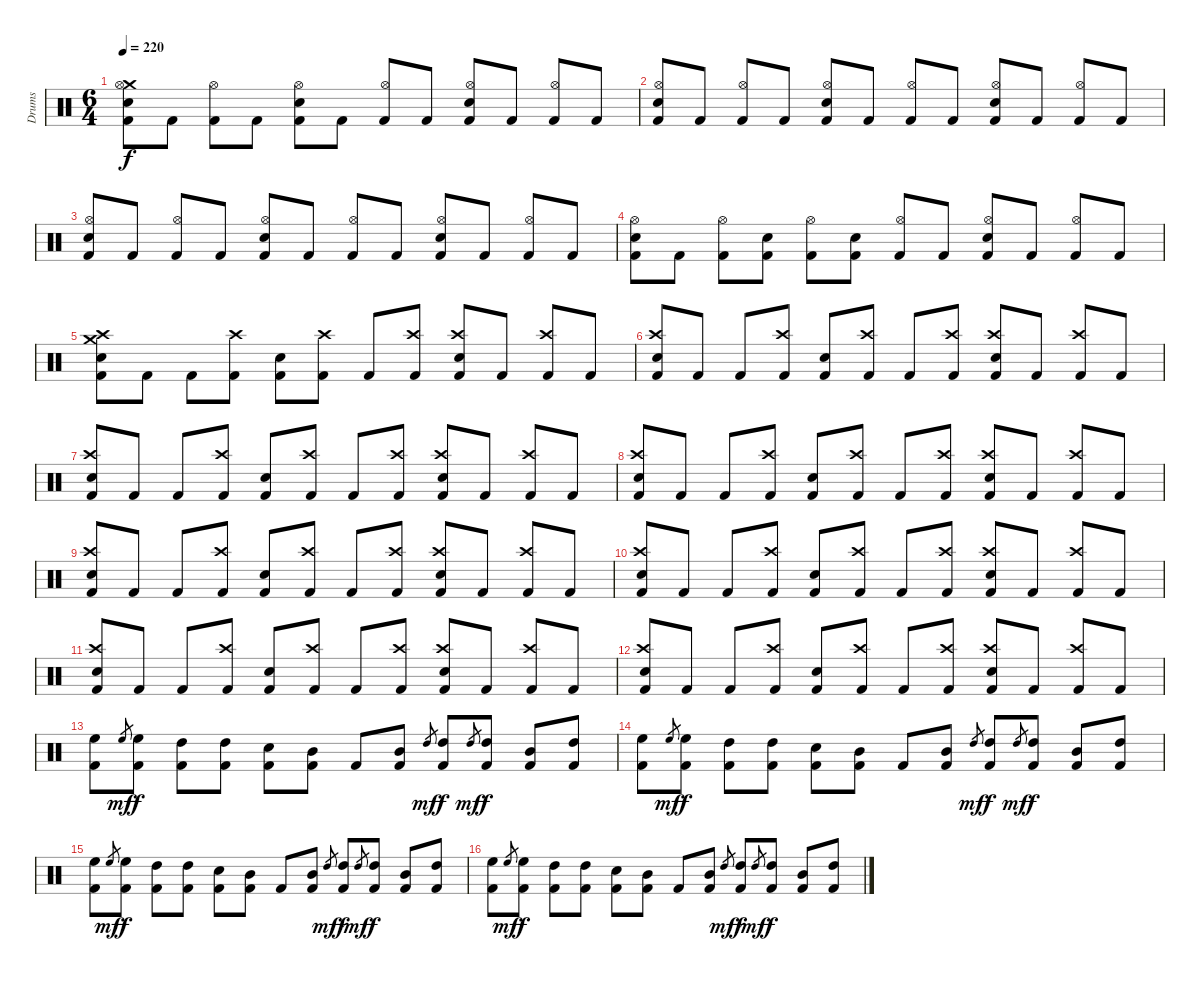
\bracketExtendMode groupsimilarinstruments
\otherSystemsTrackNameOrientation horizontal
\track ("Drumkit" "Drums") {instrument percussion}
\staff {score}
\articulation defaults
\ts (6 4)
\tempo 220
\clef neutral
\ks c
("Crash medium (hit)" "Hi-Hat (open)" "Snare (hit) 2" "Kick (hit) 2").8{dy f beam Down} "Kick (hit) 2".8{beam Down} ("Hi-Hat (open)" "Kick (hit) 2").8{beam Down} "Kick (hit) 2".8{beam Down} ("Hi-Hat (open)" "Snare (hit) 2" "Kick (hit) 2").8{beam Down} "Kick (hit) 2".8{beam Down} ("Hi-Hat (open)" "Kick (hit) 2").8{beam Up} "Kick (hit) 2".8{beam Up} ("Hi-Hat (open)" "Snare (hit) 2" "Kick (hit) 2").8{beam Up} "Kick (hit) 2".8{beam Up} ("Hi-Hat (open)" "Kick (hit) 2").8{beam Up} "Kick (hit) 2".8{beam Up} |
("Hi-Hat (open)" "Snare (hit) 2" "Kick (hit) 2").8{beam Up} "Kick (hit) 2".8{beam Up} ("Hi-Hat (open)" "Kick (hit) 2").8{beam Up} "Kick (hit) 2".8{beam Up} ("Hi-Hat (open)" "Snare (hit) 2" "Kick (hit) 2").8{beam Up} "Kick (hit) 2".8{beam Up} ("Hi-Hat (open)" "Kick (hit) 2").8{beam Up} "Kick (hit) 2".8{beam Up} ("Hi-Hat (open)" "Snare (hit) 2" "Kick (hit) 2").8{beam Up} "Kick (hit) 2".8{beam Up} ("Hi-Hat (open)" "Kick (hit) 2").8{beam Up} "Kick (hit) 2".8{beam Up} |
("Hi-Hat (open)" "Snare (hit) 2" "Kick (hit) 2").8{beam Up} "Kick (hit) 2".8{beam Up} ("Hi-Hat (open)" "Kick (hit) 2").8{beam Up} "Kick (hit) 2".8{beam Up} ("Hi-Hat (open)" "Snare (hit) 2" "Kick (hit) 2").8{beam Up} "Kick (hit) 2".8{beam Up} ("Hi-Hat (open)" "Kick (hit) 2").8{beam Up} "Kick (hit) 2".8{beam Up} ("Hi-Hat (open)" "Snare (hit) 2" "Kick (hit) 2").8{beam Up} "Kick (hit) 2".8{beam Up} ("Hi-Hat (open)" "Kick (hit) 2").8{beam Up} "Kick (hit) 2".8{beam Up} |
("Hi-Hat (open)" "Snare (hit) 2" "Kick (hit) 2").8{beam Down} "Kick (hit) 2".8{beam Down} ("Hi-Hat (open)" "Kick (hit) 2").8{beam Down} ("Snare (hit) 2" "Kick (hit) 2").8{beam Down} ("Hi-Hat (open)" "Kick (hit) 2").8{beam Down} ("Snare (hit) 2" "Kick (hit) 2").8{beam Down} ("Hi-Hat (open)" "Kick (hit) 2").8{beam Up} "Kick (hit) 2".8{beam Up} ("Hi-Hat (open)" "Snare (hit) 2" "Kick (hit) 2").8{beam Up} "Kick (hit) 2".8{beam Up} ("Hi-Hat (open)" "Kick (hit) 2").8{beam Up} "Kick (hit) 2".8{beam Up} |
("Crash medium (hit)" "Crash high (hit)" "Snare (hit) 2" "Kick (hit) 2").8{beam Down} "Kick (hit) 2".8{beam Down} "Kick (hit) 2".8{beam Down} ("Crash high (hit)" "Kick (hit) 2").8{beam Down} ("Snare (hit) 2" "Kick (hit) 2").8{beam Down} ("Crash high (hit)" "Kick (hit) 2").8{beam Down} "Kick (hit) 2".8{beam Up} ("Crash high (hit)" "Kick (hit) 2").8{beam Up} ("Crash high (hit)" "Snare (hit) 2" "Kick (hit) 2").8{beam Up} "Kick (hit) 2".8{beam Up} ("Crash high (hit)" "Kick (hit) 2").8{beam Up} "Kick (hit) 2".8{beam Up} |
("Crash high (hit)" "Snare (hit) 2" "Kick (hit) 2").8{beam Up} "Kick (hit) 2".8{beam Up} "Kick (hit) 2".8{beam Up} ("Crash high (hit)" "Kick (hit) 2").8{beam Up} ("Snare (hit) 2" "Kick (hit) 2").8{beam Up} ("Crash high (hit)" "Kick (hit) 2").8{beam Up} "Kick (hit) 2".8{beam Up} ("Crash high (hit)" "Kick (hit) 2").8{beam Up} ("Crash high (hit)" "Snare (hit) 2" "Kick (hit) 2").8{beam Up} "Kick (hit) 2".8{beam Up} ("Crash high (hit)" "Kick (hit) 2").8{beam Up} "Kick (hit) 2".8{beam Up} |
("Crash high (hit)" "Snare (hit) 2" "Kick (hit) 2").8{beam Up} "Kick (hit) 2".8{beam Up} "Kick (hit) 2".8{beam Up} ("Crash high (hit)" "Kick (hit) 2").8{beam Up} ("Snare (hit) 2" "Kick (hit) 2").8{beam Up} ("Crash high (hit)" "Kick (hit) 2").8{beam Up} "Kick (hit) 2".8{beam Up} ("Crash high (hit)" "Kick (hit) 2").8{beam Up} ("Crash high (hit)" "Snare (hit) 2" "Kick (hit) 2").8{beam Up} "Kick (hit) 2".8{beam Up} ("Crash high (hit)" "Kick (hit) 2").8{beam Up} "Kick (hit) 2".8{beam Up} |
("Crash high (hit)" "Snare (hit) 2" "Kick (hit) 2").8{beam Up} "Kick (hit) 2".8{beam Up} "Kick (hit) 2".8{beam Up} ("Crash high (hit)" "Kick (hit) 2").8{beam Up} ("Snare (hit) 2" "Kick (hit) 2").8{beam Up} ("Crash high (hit)" "Kick (hit) 2").8{beam Up} "Kick (hit) 2".8{beam Up} ("Crash high (hit)" "Kick (hit) 2").8{beam Up} ("Crash high (hit)" "Snare (hit) 2" "Kick (hit) 2").8{beam Up} "Kick (hit) 2".8{beam Up} ("Crash high (hit)" "Kick (hit) 2").8{beam Up} "Kick (hit) 2".8{beam Up} |
("Crash high (hit)" "Snare (hit) 2" "Kick (hit) 2").8{beam Up} "Kick (hit) 2".8{beam Up} "Kick (hit) 2".8{beam Up} ("Crash high (hit)" "Kick (hit) 2").8{beam Up} ("Snare (hit) 2" "Kick (hit) 2").8{beam Up} ("Crash high (hit)" "Kick (hit) 2").8{beam Up} "Kick (hit) 2".8{beam Up} ("Crash high (hit)" "Kick (hit) 2").8{beam Up} ("Crash high (hit)" "Snare (hit) 2" "Kick (hit) 2").8{beam Up} "Kick (hit) 2".8{beam Up} ("Crash high (hit)" "Kick (hit) 2").8{beam Up} "Kick (hit) 2".8{beam Up} |
("Crash high (hit)" "Snare (hit) 2" "Kick (hit) 2").8{beam Up} "Kick (hit) 2".8{beam Up} "Kick (hit) 2".8{beam Up} ("Crash high (hit)" "Kick (hit) 2").8{beam Up} ("Snare (hit) 2" "Kick (hit) 2").8{beam Up} ("Crash high (hit)" "Kick (hit) 2").8{beam Up} "Kick (hit) 2".8{beam Up} ("Crash high (hit)" "Kick (hit) 2").8{beam Up} ("Crash high (hit)" "Snare (hit) 2" "Kick (hit) 2").8{beam Up} "Kick (hit) 2".8{beam Up} ("Crash high (hit)" "Kick (hit) 2").8{beam Up} "Kick (hit) 2".8{beam Up} |
("Crash high (hit)" "Snare (hit) 2" "Kick (hit) 2").8{beam Up} "Kick (hit) 2".8{beam Up} "Kick (hit) 2".8{beam Up} ("Crash high (hit)" "Kick (hit) 2").8{beam Up} ("Snare (hit) 2" "Kick (hit) 2").8{beam Up} ("Crash high (hit)" "Kick (hit) 2").8{beam Up} "Kick (hit) 2".8{beam Up} ("Crash high (hit)" "Kick (hit) 2").8{beam Up} ("Crash high (hit)" "Snare (hit) 2" "Kick (hit) 2").8{beam Up} "Kick (hit) 2".8{beam Up} ("Crash high (hit)" "Kick (hit) 2").8{beam Up} "Kick (hit) 2".8{beam Up} |
("Crash high (hit)" "Snare (hit) 2" "Kick (hit) 2").8{beam Up} "Kick (hit) 2".8{beam Up} "Kick (hit) 2".8{beam Up} ("Crash high (hit)" "Kick (hit) 2").8{beam Up} ("Snare (hit) 2" "Kick (hit) 2").8{beam Up} ("Crash high (hit)" "Kick (hit) 2").8{beam Up} "Kick (hit) 2".8{beam Up} ("Crash high (hit)" "Kick (hit) 2").8{beam Up} ("Crash high (hit)" "Snare (hit) 2" "Kick (hit) 2").8{beam Up} "Kick (hit) 2".8{beam Up} ("Crash high (hit)" "Kick (hit) 2").8{beam Up} "Kick (hit) 2".8{beam Up} |
("High Floor Tom (hit)" "Kick (hit) 2").8{beam Down} "High Floor Tom (hit)".8{gr dy mf beam Up} ("High Floor Tom (hit)" "Kick (hit) 2").8{dy f beam Down} ("High Tom (hit)" "Kick (hit) 2").8{beam Down} ("High Tom (hit)" "Kick (hit) 2").8{beam Down} ("Snare (hit) 2" "Kick (hit) 2").8{beam Down} ("Mid Tom (hit)" "Kick (hit) 2").8{beam Down} "Kick (hit) 2".8{beam Up} ("Mid Tom (hit)" "Kick (hit) 2").8{beam Up} "High Tom (hit)".8{gr dy mf beam Up} ("High Tom (hit)" "Kick (hit) 2").8{dy f beam Up} "High Tom (hit)".8{gr dy mf beam Up} ("High Tom (hit)" "Kick (hit) 2").8{dy f beam Up} ("Mid Tom (hit)" "Kick (hit) 2").8{beam Up} ("High Tom (hit)" "Kick (hit) 2").8{beam Up} |
("High Floor Tom (hit)" "Kick (hit) 2").8{beam Down} "High Floor Tom (hit)".8{gr dy mf beam Up} ("High Floor Tom (hit)" "Kick (hit) 2").8{dy f beam Down} ("High Tom (hit)" "Kick (hit) 2").8{beam Down} ("High Tom (hit)" "Kick (hit) 2").8{beam Down} ("Snare (hit) 2" "Kick (hit) 2").8{beam Down} ("Mid Tom (hit)" "Kick (hit) 2").8{beam Down} "Kick (hit) 2".8{beam Up} ("Mid Tom (hit)" "Kick (hit) 2").8{beam Up} "High Tom (hit)".8{gr dy mf beam Up} ("High Tom (hit)" "Kick (hit) 2").8{dy f beam Up} "High Tom (hit)".8{gr dy mf beam Up} ("High Tom (hit)" "Kick (hit) 2").8{dy f beam Up} ("Mid Tom (hit)" "Kick (hit) 2").8{beam Up} ("High Tom (hit)" "Kick (hit) 2").8{beam Up} |
("High Floor Tom (hit)" "Kick (hit) 2").8{beam Down} "High Floor Tom (hit)".8{gr dy mf beam Up} ("High Floor Tom (hit)" "Kick (hit) 2").8{dy f beam Down} ("High Tom (hit)" "Kick (hit) 2").8{beam Down} ("High Tom (hit)" "Kick (hit) 2").8{beam Down} ("Snare (hit) 2" "Kick (hit) 2").8{beam Down} ("Mid Tom (hit)" "Kick (hit) 2").8{beam Down} "Kick (hit) 2".8{beam Up} ("Mid Tom (hit)" "Kick (hit) 2").8{beam Up} "High Tom (hit)".8{gr dy mf beam Up} ("High Tom (hit)" "Kick (hit) 2").8{dy f beam Up} "High Tom (hit)".8{gr dy mf beam Up} ("High Tom (hit)" "Kick (hit) 2").8{dy f beam Up} ("Mid Tom (hit)" "Kick (hit) 2").8{beam Up} ("High Tom (hit)" "Kick (hit) 2").8{beam Up} |
("High Floor Tom (hit)" "Kick (hit) 2").8{beam Down} "High Floor Tom (hit)".8{gr dy mf beam Up} ("High Floor Tom (hit)" "Kick (hit) 2").8{dy f beam Down} ("High Tom (hit)" "Kick (hit) 2").8{beam Down} ("High Tom (hit)" "Kick (hit) 2").8{beam Down} ("Snare (hit) 2" "Kick (hit) 2").8{beam Down} ("Mid Tom (hit)" "Kick (hit) 2").8{beam Down} "Kick (hit) 2".8{beam Up} ("Mid Tom (hit)" "Kick (hit) 2").8{beam Up} "High Tom (hit)".8{gr dy mf beam Up} ("High Tom (hit)" "Kick (hit) 2").8{dy f beam Up} "High Tom (hit)".8{gr dy mf beam Up} ("High Tom (hit)" "Kick (hit) 2").8{dy f beam Up} ("Mid Tom (hit)" "Kick (hit) 2").8{beam Up} ("High Tom (hit)" "Kick (hit) 2").8{beam Up}
